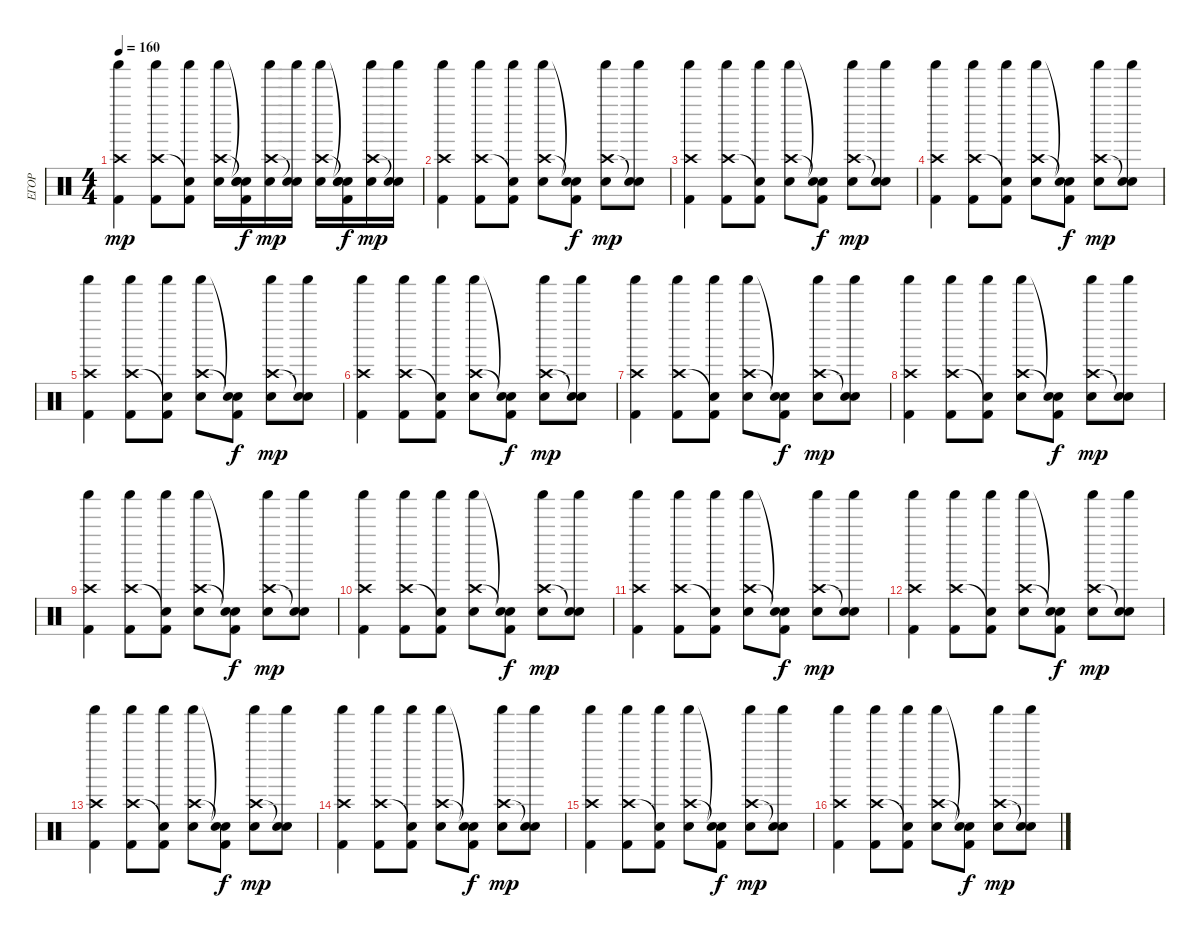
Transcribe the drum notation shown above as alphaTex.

\track ("ЕГОР" "ЕГОР") {instrument percussion}
\staff {score}
\articulation defaults
\ts (4 4)
\tempo 160
\clef neutral
\ks c
("Crash high (hit)" "Shaker (hit)" "Kick (hit) 2").4{dy mp} ("Crash high (hit)" "Shaker (hit)" "Kick (hit) 2").8 ("Snare (hit)"{t} "Shaker (hit)" "Kick (hit) 2").8 ("Crash high (hit)" "Shaker (hit)" "Electric Snare (hit)").16 ("Snare (hit)"{t} "Snare (hit)"{t} "Electric Snare (hit)" "Kick (hit) 2").16{dy f} ("Crash high (hit)" "Shaker (hit)" "Electric Snare (hit)").16{dy mp} ("Snare (hit)"{t} "Shaker (hit)" "Electric Snare (hit)").16 ("Crash high (hit)" "Shaker (hit)" "Electric Snare (hit)").16 ("Snare (hit)"{t} "Snare (hit)"{t} "Electric Snare (hit)" "Kick (hit) 2").16{dy f} ("Crash high (hit)" "Shaker (hit)" "Electric Snare (hit)").16{dy mp} ("Snare (hit)"{t} "Shaker (hit)" "Electric Snare (hit)").16 |
("Crash high (hit)" "Shaker (hit)" "Kick (hit) 2").4 ("Crash high (hit)" "Shaker (hit)" "Kick (hit) 2").8 ("Snare (hit)"{t} "Shaker (hit)" "Kick (hit) 2").8 ("Crash high (hit)" "Shaker (hit)" "Electric Snare (hit)").8 ("Snare (hit)"{t} "Snare (hit)"{t} "Kick (hit) 2").8{dy f} ("Crash high (hit)" "Shaker (hit)" "Electric Snare (hit)").8{dy mp} ("Snare (hit)"{t} "Shaker (hit)" "Electric Snare (hit)").8 |
("Crash high (hit)" "Shaker (hit)" "Kick (hit) 2").4 ("Crash high (hit)" "Shaker (hit)" "Kick (hit) 2").8 ("Snare (hit)"{t} "Shaker (hit)" "Kick (hit) 2").8 ("Crash high (hit)" "Shaker (hit)" "Electric Snare (hit)").8 ("Snare (hit)"{t} "Snare (hit)"{t} "Kick (hit) 2").8{dy f} ("Crash high (hit)" "Shaker (hit)" "Electric Snare (hit)").8{dy mp} ("Snare (hit)"{t} "Shaker (hit)" "Electric Snare (hit)").8 |
("Crash high (hit)" "Shaker (hit)" "Kick (hit) 2").4 ("Crash high (hit)" "Shaker (hit)" "Kick (hit) 2").8 ("Snare (hit)"{t} "Shaker (hit)" "Kick (hit) 2").8 ("Crash high (hit)" "Shaker (hit)" "Electric Snare (hit)").8 ("Snare (hit)"{t} "Snare (hit)"{t} "Kick (hit) 2").8{dy f} ("Crash high (hit)" "Shaker (hit)" "Electric Snare (hit)").8{dy mp} ("Snare (hit)"{t} "Shaker (hit)" "Electric Snare (hit)").8 |
("Crash high (hit)" "Shaker (hit)" "Kick (hit) 2").4 ("Crash high (hit)" "Shaker (hit)" "Kick (hit) 2").8 ("Snare (hit)"{t} "Shaker (hit)" "Kick (hit) 2").8 ("Crash high (hit)" "Shaker (hit)" "Electric Snare (hit)").8 ("Snare (hit)"{t} "Snare (hit)"{t} "Kick (hit) 2").8{dy f} ("Crash high (hit)" "Shaker (hit)" "Electric Snare (hit)").8{dy mp} ("Snare (hit)"{t} "Shaker (hit)" "Electric Snare (hit)").8 |
("Crash high (hit)" "Shaker (hit)" "Kick (hit) 2").4 ("Crash high (hit)" "Shaker (hit)" "Kick (hit) 2").8 ("Snare (hit)"{t} "Shaker (hit)" "Kick (hit) 2").8 ("Crash high (hit)" "Shaker (hit)" "Electric Snare (hit)").8 ("Snare (hit)"{t} "Snare (hit)"{t} "Kick (hit) 2").8{dy f} ("Crash high (hit)" "Shaker (hit)" "Electric Snare (hit)").8{dy mp} ("Snare (hit)"{t} "Shaker (hit)" "Electric Snare (hit)").8 |
("Crash high (hit)" "Shaker (hit)" "Kick (hit) 2").4 ("Crash high (hit)" "Shaker (hit)" "Kick (hit) 2").8 ("Snare (hit)"{t} "Shaker (hit)" "Kick (hit) 2").8 ("Crash high (hit)" "Shaker (hit)" "Electric Snare (hit)").8 ("Snare (hit)"{t} "Snare (hit)"{t} "Kick (hit) 2").8{dy f} ("Crash high (hit)" "Shaker (hit)" "Electric Snare (hit)").8{dy mp} ("Snare (hit)"{t} "Shaker (hit)" "Electric Snare (hit)").8 |
("Crash high (hit)" "Shaker (hit)" "Kick (hit) 2").4 ("Crash high (hit)" "Shaker (hit)" "Kick (hit) 2").8 ("Snare (hit)"{t} "Shaker (hit)" "Kick (hit) 2").8 ("Crash high (hit)" "Shaker (hit)" "Electric Snare (hit)").8 ("Snare (hit)"{t} "Snare (hit)"{t} "Kick (hit) 2").8{dy f} ("Crash high (hit)" "Shaker (hit)" "Electric Snare (hit)").8{dy mp} ("Snare (hit)"{t} "Shaker (hit)" "Electric Snare (hit)").8 |
("Crash high (hit)" "Shaker (hit)" "Kick (hit) 2").4 ("Crash high (hit)" "Shaker (hit)" "Kick (hit) 2").8 ("Snare (hit)"{t} "Shaker (hit)" "Kick (hit) 2").8 ("Crash high (hit)" "Shaker (hit)" "Electric Snare (hit)").8 ("Snare (hit)"{t} "Snare (hit)"{t} "Kick (hit) 2").8{dy f} ("Crash high (hit)" "Shaker (hit)" "Electric Snare (hit)").8{dy mp} ("Snare (hit)"{t} "Shaker (hit)" "Electric Snare (hit)").8 |
("Crash high (hit)" "Shaker (hit)" "Kick (hit) 2").4 ("Crash high (hit)" "Shaker (hit)" "Kick (hit) 2").8 ("Snare (hit)"{t} "Shaker (hit)" "Kick (hit) 2").8 ("Crash high (hit)" "Shaker (hit)" "Electric Snare (hit)").8 ("Snare (hit)"{t} "Snare (hit)"{t} "Kick (hit) 2").8{dy f} ("Crash high (hit)" "Shaker (hit)" "Electric Snare (hit)").8{dy mp} ("Snare (hit)"{t} "Shaker (hit)" "Electric Snare (hit)").8 |
("Crash high (hit)" "Shaker (hit)" "Kick (hit) 2").4 ("Crash high (hit)" "Shaker (hit)" "Kick (hit) 2").8 ("Snare (hit)"{t} "Shaker (hit)" "Kick (hit) 2").8 ("Crash high (hit)" "Shaker (hit)" "Electric Snare (hit)").8 ("Snare (hit)"{t} "Snare (hit)"{t} "Kick (hit) 2").8{dy f} ("Crash high (hit)" "Shaker (hit)" "Electric Snare (hit)").8{dy mp} ("Snare (hit)"{t} "Shaker (hit)" "Electric Snare (hit)").8 |
("Crash high (hit)" "Shaker (hit)" "Kick (hit) 2").4 ("Crash high (hit)" "Shaker (hit)" "Kick (hit) 2").8 ("Snare (hit)"{t} "Shaker (hit)" "Kick (hit) 2").8 ("Crash high (hit)" "Shaker (hit)" "Electric Snare (hit)").8 ("Snare (hit)"{t} "Snare (hit)"{t} "Kick (hit) 2").8{dy f} ("Crash high (hit)" "Shaker (hit)" "Electric Snare (hit)").8{dy mp} ("Snare (hit)"{t} "Shaker (hit)" "Electric Snare (hit)").8 |
("Crash high (hit)" "Shaker (hit)" "Kick (hit) 2").4 ("Crash high (hit)" "Shaker (hit)" "Kick (hit) 2").8 ("Snare (hit)"{t} "Shaker (hit)" "Kick (hit) 2").8 ("Crash high (hit)" "Shaker (hit)" "Electric Snare (hit)").8 ("Snare (hit)"{t} "Snare (hit)"{t} "Kick (hit) 2").8{dy f} ("Crash high (hit)" "Shaker (hit)" "Electric Snare (hit)").8{dy mp} ("Snare (hit)"{t} "Shaker (hit)" "Electric Snare (hit)").8 |
("Crash high (hit)" "Shaker (hit)" "Kick (hit) 2").4 ("Crash high (hit)" "Shaker (hit)" "Kick (hit) 2").8 ("Snare (hit)"{t} "Shaker (hit)" "Kick (hit) 2").8 ("Crash high (hit)" "Shaker (hit)" "Electric Snare (hit)").8 ("Snare (hit)"{t} "Snare (hit)"{t} "Kick (hit) 2").8{dy f} ("Crash high (hit)" "Shaker (hit)" "Electric Snare (hit)").8{dy mp} ("Snare (hit)"{t} "Shaker (hit)" "Electric Snare (hit)").8 |
("Crash high (hit)" "Shaker (hit)" "Kick (hit) 2").4 ("Crash high (hit)" "Shaker (hit)" "Kick (hit) 2").8 ("Snare (hit)"{t} "Shaker (hit)" "Kick (hit) 2").8 ("Crash high (hit)" "Shaker (hit)" "Electric Snare (hit)").8 ("Snare (hit)"{t} "Snare (hit)"{t} "Kick (hit) 2").8{dy f} ("Crash high (hit)" "Shaker (hit)" "Electric Snare (hit)").8{dy mp} ("Snare (hit)"{t} "Shaker (hit)" "Electric Snare (hit)").8 |
("Crash high (hit)" "Shaker (hit)" "Kick (hit) 2").4 ("Crash high (hit)" "Shaker (hit)" "Kick (hit) 2").8 ("Snare (hit)"{t} "Shaker (hit)" "Kick (hit) 2").8 ("Crash high (hit)" "Shaker (hit)" "Electric Snare (hit)").8 ("Snare (hit)"{t} "Snare (hit)"{t} "Kick (hit) 2").8{dy f} ("Crash high (hit)" "Shaker (hit)" "Electric Snare (hit)").8{dy mp} ("Snare (hit)"{t} "Shaker (hit)" "Electric Snare (hit)").8
